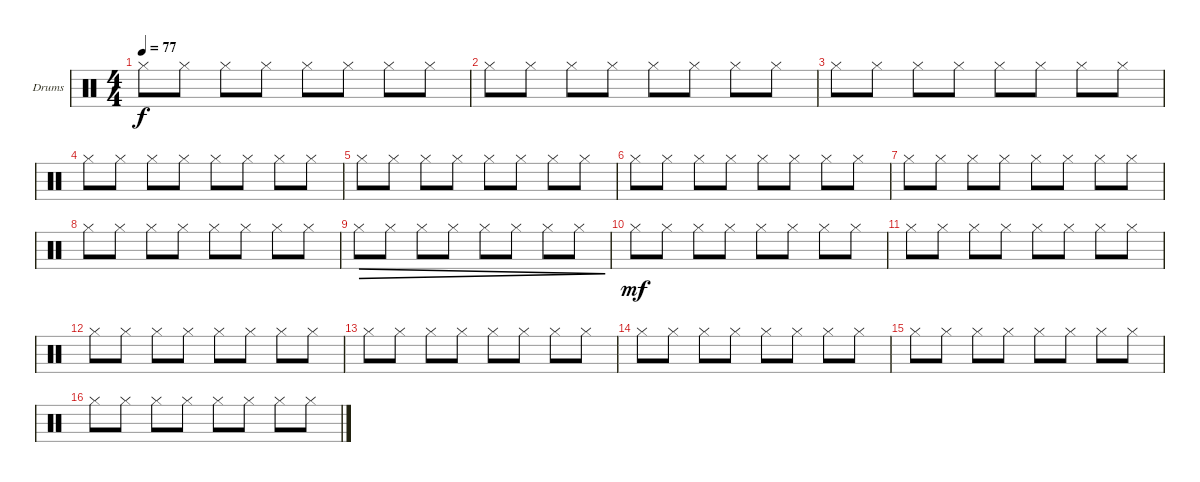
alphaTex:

\bracketExtendMode groupsimilarinstruments
\firstSystemTrackNameOrientation horizontal
\otherSystemsTrackNameOrientation horizontal
\track ("Drumkit Гурьянов" "Drums") {instrument percussion}
\staff {score}
\articulation defaults
\ts (4 4)
\tempo 77
\clef neutral
\scale
0.333333
\ks c "Hi-Hat (closed)".8{dy f} "Hi-Hat (closed)".8 "Hi-Hat (closed)".8 "Hi-Hat (closed)".8 "Hi-Hat (closed)".8 "Hi-Hat (closed)".8 "Hi-Hat (closed)".8 "Hi-Hat (closed)".8
|
\scale
0.333333 "Hi-Hat (closed)".8 "Hi-Hat (closed)".8 "Hi-Hat (closed)".8 "Hi-Hat (closed)".8 "Hi-Hat (closed)".8 "Hi-Hat (closed)".8 "Hi-Hat (closed)".8 "Hi-Hat (closed)".8 |
\scale
0.333333 "Hi-Hat (closed)".8 "Hi-Hat (closed)".8 "Hi-Hat (closed)".8 "Hi-Hat (closed)".8 "Hi-Hat (closed)".8 "Hi-Hat (closed)".8 "Hi-Hat (closed)".8 "Hi-Hat (closed)".8 |
\scale
0.333333 "Hi-Hat (closed)".8 "Hi-Hat (closed)".8 "Hi-Hat (closed)".8 "Hi-Hat (closed)".8 "Hi-Hat (closed)".8 "Hi-Hat (closed)".8 "Hi-Hat (closed)".8 "Hi-Hat (closed)".8 |
\scale
0.333333 "Hi-Hat (closed)".8 "Hi-Hat (closed)".8 "Hi-Hat (closed)".8 "Hi-Hat (closed)".8 "Hi-Hat (closed)".8 "Hi-Hat (closed)".8 "Hi-Hat (closed)".8 "Hi-Hat (closed)".8 |
\scale
0.333333 "Hi-Hat (closed)".8 "Hi-Hat (closed)".8 "Hi-Hat (closed)".8 "Hi-Hat (closed)".8 "Hi-Hat (closed)".8 "Hi-Hat (closed)".8 "Hi-Hat (closed)".8 "Hi-Hat (closed)".8 |
\scale
0.333333 "Hi-Hat (closed)".8 "Hi-Hat (closed)".8 "Hi-Hat (closed)".8 "Hi-Hat (closed)".8 "Hi-Hat (closed)".8 "Hi-Hat (closed)".8 "Hi-Hat (closed)".8 "Hi-Hat (closed)".8 |
\scale
0.333333 "Hi-Hat (closed)".8 "Hi-Hat (closed)".8 "Hi-Hat (closed)".8 "Hi-Hat (closed)".8 "Hi-Hat (closed)".8 "Hi-Hat (closed)".8 "Hi-Hat (closed)".8 "Hi-Hat (closed)".8 |
\scale
0.333333 "Hi-Hat (closed)".8{dec} "Hi-Hat (closed)".8{dec} "Hi-Hat (closed)".8{dec} "Hi-Hat (closed)".8{dec} "Hi-Hat (closed)".8{dec} "Hi-Hat (closed)".8{dec} "Hi-Hat (closed)".8{dec} "Hi-Hat (closed)".8{dec} |
\scale
0.333333 "Hi-Hat (closed)".8{dy mf} "Hi-Hat (closed)".8 "Hi-Hat (closed)".8 "Hi-Hat (closed)".8 "Hi-Hat (closed)".8 "Hi-Hat (closed)".8 "Hi-Hat (closed)".8 "Hi-Hat (closed)".8 |
\scale
0.333333 "Hi-Hat (closed)".8 "Hi-Hat (closed)".8 "Hi-Hat (closed)".8 "Hi-Hat (closed)".8 "Hi-Hat (closed)".8 "Hi-Hat (closed)".8 "Hi-Hat (closed)".8 "Hi-Hat (closed)".8 |
\scale
0.333333 "Hi-Hat (closed)".8 "Hi-Hat (closed)".8 "Hi-Hat (closed)".8 "Hi-Hat (closed)".8 "Hi-Hat (closed)".8 "Hi-Hat (closed)".8 "Hi-Hat (closed)".8 "Hi-Hat (closed)".8 |
\scale
0.333333 "Hi-Hat (closed)".8 "Hi-Hat (closed)".8 "Hi-Hat (closed)".8 "Hi-Hat (closed)".8 "Hi-Hat (closed)".8 "Hi-Hat (closed)".8 "Hi-Hat (closed)".8 "Hi-Hat (closed)".8 |
\scale
0.333333 "Hi-Hat (closed)".8 "Hi-Hat (closed)".8 "Hi-Hat (closed)".8 "Hi-Hat (closed)".8 "Hi-Hat (closed)".8 "Hi-Hat (closed)".8 "Hi-Hat (closed)".8 "Hi-Hat (closed)".8 |
\scale
0.333333 "Hi-Hat (closed)".8 "Hi-Hat (closed)".8 "Hi-Hat (closed)".8 "Hi-Hat (closed)".8 "Hi-Hat (closed)".8 "Hi-Hat (closed)".8 "Hi-Hat (closed)".8 "Hi-Hat (closed)".8 |
\scale
0.333333 "Hi-Hat (closed)".8 "Hi-Hat (closed)".8 "Hi-Hat (closed)".8 "Hi-Hat (closed)".8 "Hi-Hat (closed)".8 "Hi-Hat (closed)".8 "Hi-Hat (closed)".8 "Hi-Hat (closed)".8
